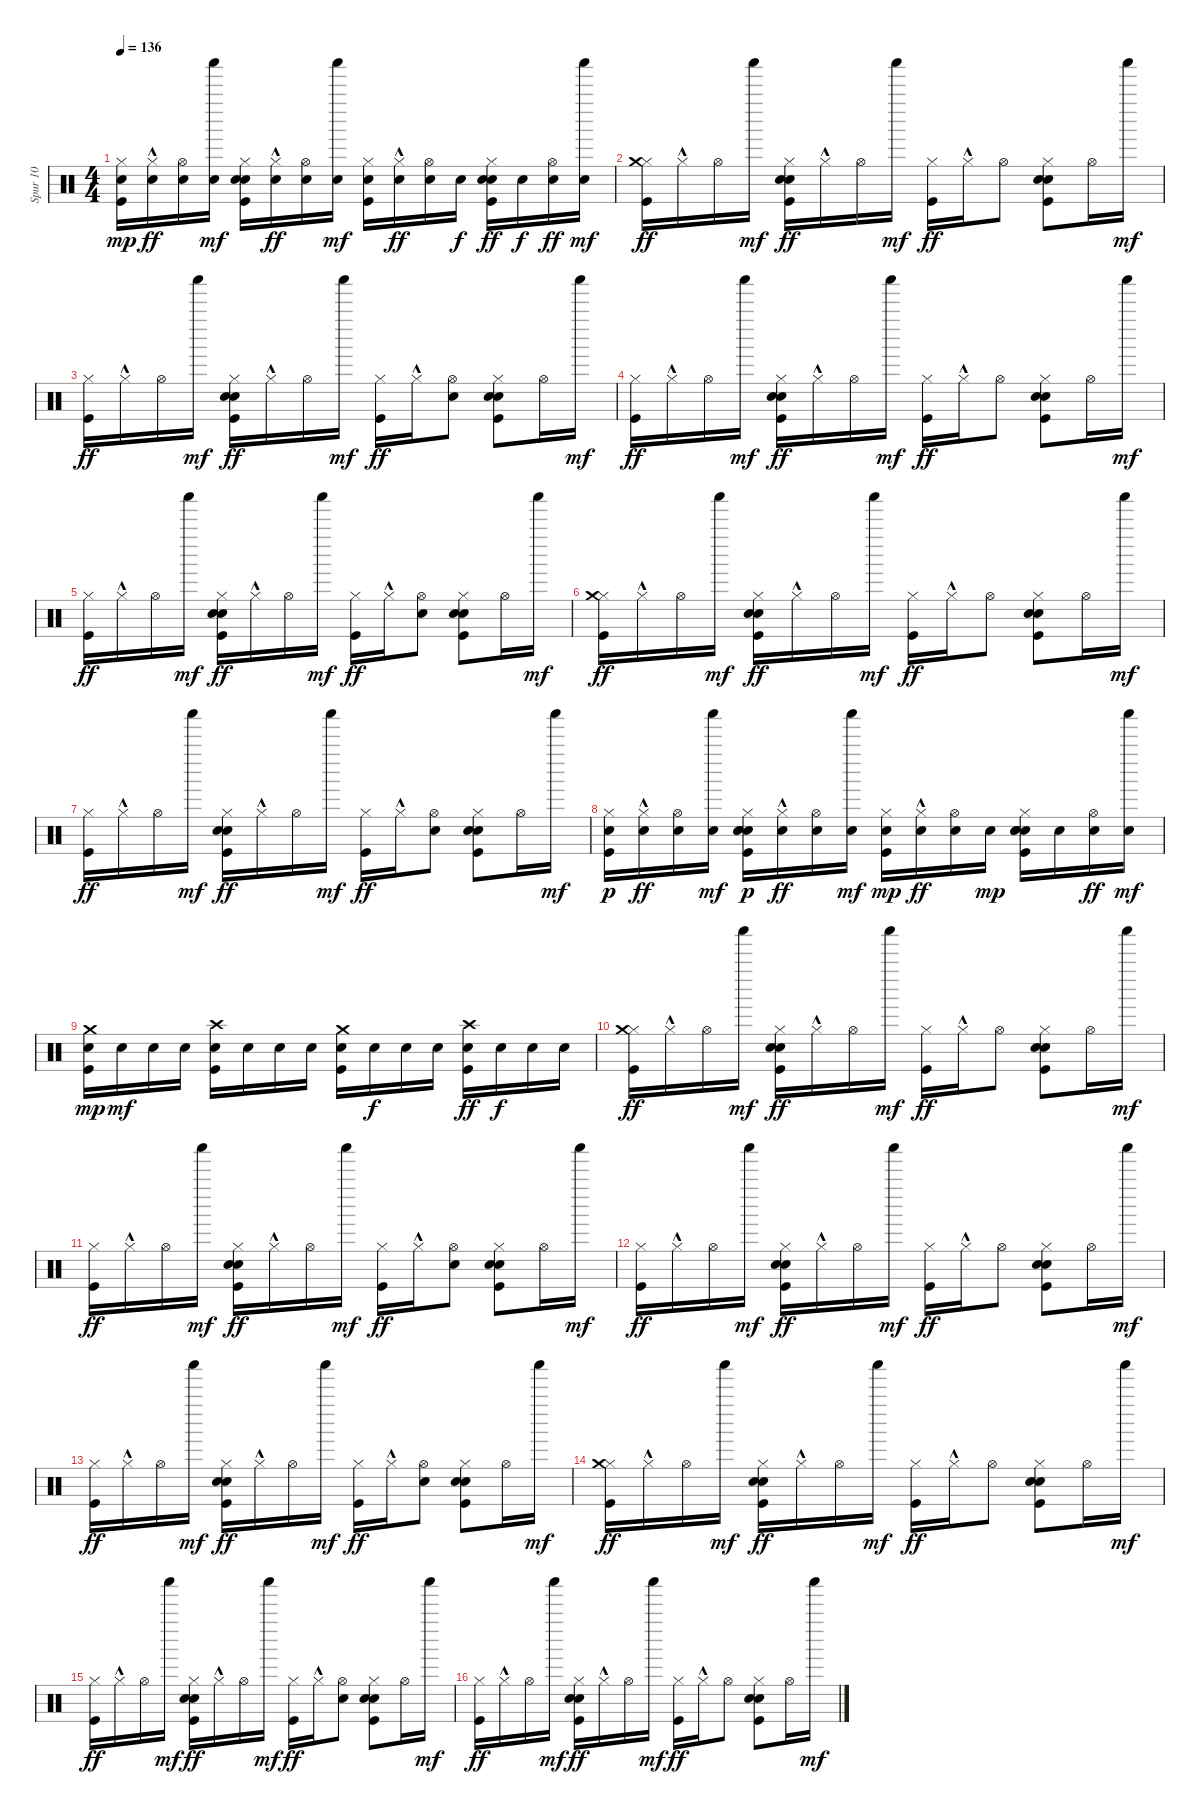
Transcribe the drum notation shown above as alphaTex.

\track ("Spur 10" "Spur 10") {instrument percussion}
\staff {score}
\articulation defaults
\ts (4 4)
\tempo 136
\clef neutral
\ks c
("Kick (hit)" "Snare (hit) 2" "Hi-Hat (closed)").16{dy mp} ("Snare (hit) 2" "Hi-Hat (closed)"{hac}).16{dy ff} ("Snare (hit) 2" "Hi-Hat (open)").16 ("Snare (hit) 2" "Shaker (hit)").16{dy mf} ("Kick (hit)" "Electric Snare (hit)" "Snare (hit) 2" "Hi-Hat (closed)").16 ("Snare (hit) 2" "Hi-Hat (closed)"{hac}).16{dy ff} ("Snare (hit) 2" "Hi-Hat (open)").16 ("Snare (hit) 2" "Shaker (hit)").16{dy mf} ("Kick (hit)" "Snare (hit) 2" "Hi-Hat (closed)").16 ("Snare (hit) 2" "Hi-Hat (closed)"{hac}).16{dy ff} ("Snare (hit) 2" "Hi-Hat (open)").16 "Snare (hit) 2".16{dy f} ("Kick (hit)" "Electric Snare (hit)" "Snare (hit) 2" "Hi-Hat (closed)").16{dy ff} "Snare (hit) 2".16{dy f} ("Snare (hit) 2" "Hi-Hat (open)").16{dy ff} ("Snare (hit) 2" "Shaker (hit)").16{dy mf} |
("Kick (hit)" "Hi-Hat (closed)" "Crash medium (hit)").16{dy ff} "Hi-Hat (closed)"{hac}.16 "Hi-Hat (open)".16 "Shaker (hit)".16{dy mf} ("Kick (hit)" "Electric Snare (hit)" "Hi-Hat (closed)" "Hand Clap (hit)").16{dy ff} "Hi-Hat (closed)"{hac}.16 "Hi-Hat (open)".16 "Shaker (hit)".16{dy mf} ("Kick (hit)" "Hi-Hat (closed)").16{dy ff} "Hi-Hat (closed)"{hac}.16 "Hi-Hat (open)".8 ("Kick (hit)" "Electric Snare (hit)" "Hi-Hat (closed)" "Hand Clap (hit)").8 "Hi-Hat (open)".16 "Shaker (hit)".16{dy mf} |
("Kick (hit)" "Hi-Hat (closed)").16{dy ff} "Hi-Hat (closed)"{hac}.16 "Hi-Hat (open)".16 "Shaker (hit)".16{dy mf} ("Kick (hit)" "Electric Snare (hit)" "Hi-Hat (closed)" "Hand Clap (hit)").16{dy ff} "Hi-Hat (closed)"{hac}.16 "Hi-Hat (open)".16 "Shaker (hit)".16{dy mf} ("Kick (hit)" "Hi-Hat (closed)").16{dy ff} "Hi-Hat (closed)"{hac}.16 ("Hi-Hat (open)" "Hand Clap (hit)").8 ("Kick (hit)" "Electric Snare (hit)" "Hi-Hat (closed)" "Hand Clap (hit)").8 "Hi-Hat (open)".16 "Shaker (hit)".16{dy mf} |
("Kick (hit)" "Hi-Hat (closed)").16{dy ff} "Hi-Hat (closed)"{hac}.16 "Hi-Hat (open)".16 "Shaker (hit)".16{dy mf} ("Kick (hit)" "Electric Snare (hit)" "Hi-Hat (closed)" "Hand Clap (hit)").16{dy ff} "Hi-Hat (closed)"{hac}.16 "Hi-Hat (open)".16 "Shaker (hit)".16{dy mf} ("Kick (hit)" "Hi-Hat (closed)").16{dy ff} "Hi-Hat (closed)"{hac}.16 "Hi-Hat (open)".8 ("Kick (hit)" "Electric Snare (hit)" "Hi-Hat (closed)" "Hand Clap (hit)").8 "Hi-Hat (open)".16 "Shaker (hit)".16{dy mf} |
("Kick (hit)" "Hi-Hat (closed)").16{dy ff} "Hi-Hat (closed)"{hac}.16 "Hi-Hat (open)".16 "Shaker (hit)".16{dy mf} ("Kick (hit)" "Electric Snare (hit)" "Hi-Hat (closed)" "Hand Clap (hit)").16{dy ff} "Hi-Hat (closed)"{hac}.16 "Hi-Hat (open)".16 "Shaker (hit)".16{dy mf} ("Kick (hit)" "Hi-Hat (closed)").16{dy ff} "Hi-Hat (closed)"{hac}.16 ("Hi-Hat (open)" "Hand Clap (hit)").8 ("Kick (hit)" "Electric Snare (hit)" "Hi-Hat (closed)" "Hand Clap (hit)").8 "Hi-Hat (open)".16 "Shaker (hit)".16{dy mf} |
("Kick (hit)" "Hi-Hat (closed)" "Crash medium (hit)").16{dy ff} "Hi-Hat (closed)"{hac}.16 "Hi-Hat (open)".16 "Shaker (hit)".16{dy mf} ("Kick (hit)" "Electric Snare (hit)" "Hi-Hat (closed)" "Hand Clap (hit)").16{dy ff} "Hi-Hat (closed)"{hac}.16 "Hi-Hat (open)".16 "Shaker (hit)".16{dy mf} ("Kick (hit)" "Hi-Hat (closed)").16{dy ff} "Hi-Hat (closed)"{hac}.16 "Hi-Hat (open)".8 ("Kick (hit)" "Electric Snare (hit)" "Hi-Hat (closed)" "Hand Clap (hit)").8 "Hi-Hat (open)".16 "Shaker (hit)".16{dy mf} |
("Kick (hit)" "Hi-Hat (closed)").16{dy ff} "Hi-Hat (closed)"{hac}.16 "Hi-Hat (open)".16 "Shaker (hit)".16{dy mf} ("Kick (hit)" "Electric Snare (hit)" "Hi-Hat (closed)" "Hand Clap (hit)").16{dy ff} "Hi-Hat (closed)"{hac}.16 "Hi-Hat (open)".16 "Shaker (hit)".16{dy mf} ("Kick (hit)" "Hi-Hat (closed)").16{dy ff} "Hi-Hat (closed)"{hac}.16 ("Hi-Hat (open)" "Hand Clap (hit)").8 ("Kick (hit)" "Electric Snare (hit)" "Hi-Hat (closed)" "Hand Clap (hit)").8 "Hi-Hat (open)".16 "Shaker (hit)".16{dy mf} |
("Kick (hit)" "Snare (hit) 2" "Hi-Hat (closed)").16{dy p} ("Snare (hit) 2" "Hi-Hat (closed)"{hac}).16{dy ff} ("Snare (hit) 2" "Hi-Hat (open)").16 ("Snare (hit) 2" "Shaker (hit)").16{dy mf} ("Kick (hit)" "Electric Snare (hit)" "Snare (hit) 2" "Hi-Hat (closed)" "Hand Clap (hit)").16{dy p} ("Snare (hit) 2" "Hi-Hat (closed)"{hac}).16{dy ff} ("Snare (hit) 2" "Hi-Hat (open)").16 ("Snare (hit) 2" "Shaker (hit)").16{dy mf} ("Kick (hit)" "Snare (hit) 2" "Hi-Hat (closed)").16{dy mp} ("Snare (hit) 2" "Hi-Hat (closed)"{hac}).16{dy ff} ("Snare (hit) 2" "Hi-Hat (open)").16 "Snare (hit) 2".16{dy mp} ("Kick (hit)" "Electric Snare (hit)" "Snare (hit) 2" "Hi-Hat (closed)" "Hand Clap (hit)").16 "Snare (hit) 2".16 ("Snare (hit) 2" "Hi-Hat (open)").16{dy ff} ("Snare (hit) 2" "Shaker (hit)").16{dy mf} |
("Kick (hit)" "Snare (hit) 2" "Crash medium (hit)").16{dy mp} "Snare (hit) 2".16{dy mf} "Snare (hit) 2".16 "Snare (hit) 2".16 ("Kick (hit)" "Snare (hit) 2" "Crash high (hit)").16 "Snare (hit) 2".16 "Snare (hit) 2".16 "Snare (hit) 2".16 ("Kick (hit)" "Snare (hit) 2" "Crash medium (hit)").16 "Snare (hit) 2".16{dy f} "Snare (hit) 2".16 "Snare (hit) 2".16 ("Kick (hit)" "Snare (hit) 2" "Crash high (hit)").16{dy ff} "Snare (hit) 2".16{dy f} "Snare (hit) 2".16 "Snare (hit) 2".16 |
("Kick (hit)" "Hi-Hat (closed)" "Crash medium (hit)").16{dy ff} "Hi-Hat (closed)"{hac}.16 "Hi-Hat (open)".16 "Shaker (hit)".16{dy mf} ("Kick (hit)" "Electric Snare (hit)" "Hi-Hat (closed)" "Hand Clap (hit)").16{dy ff} "Hi-Hat (closed)"{hac}.16 "Hi-Hat (open)".16 "Shaker (hit)".16{dy mf} ("Kick (hit)" "Hi-Hat (closed)").16{dy ff} "Hi-Hat (closed)"{hac}.16 "Hi-Hat (open)".8 ("Kick (hit)" "Electric Snare (hit)" "Hi-Hat (closed)" "Hand Clap (hit)").8 "Hi-Hat (open)".16 "Shaker (hit)".16{dy mf} |
("Kick (hit)" "Hi-Hat (closed)").16{dy ff} "Hi-Hat (closed)"{hac}.16 "Hi-Hat (open)".16 "Shaker (hit)".16{dy mf} ("Kick (hit)" "Electric Snare (hit)" "Hi-Hat (closed)" "Hand Clap (hit)").16{dy ff} "Hi-Hat (closed)"{hac}.16 "Hi-Hat (open)".16 "Shaker (hit)".16{dy mf} ("Kick (hit)" "Hi-Hat (closed)").16{dy ff} "Hi-Hat (closed)"{hac}.16 ("Hi-Hat (open)" "Hand Clap (hit)").8 ("Kick (hit)" "Electric Snare (hit)" "Hi-Hat (closed)" "Hand Clap (hit)").8 "Hi-Hat (open)".16 "Shaker (hit)".16{dy mf} |
("Kick (hit)" "Hi-Hat (closed)").16{dy ff} "Hi-Hat (closed)"{hac}.16 "Hi-Hat (open)".16 "Shaker (hit)".16{dy mf} ("Kick (hit)" "Electric Snare (hit)" "Hi-Hat (closed)" "Hand Clap (hit)").16{dy ff} "Hi-Hat (closed)"{hac}.16 "Hi-Hat (open)".16 "Shaker (hit)".16{dy mf} ("Kick (hit)" "Hi-Hat (closed)").16{dy ff} "Hi-Hat (closed)"{hac}.16 "Hi-Hat (open)".8 ("Kick (hit)" "Electric Snare (hit)" "Hi-Hat (closed)" "Hand Clap (hit)").8 "Hi-Hat (open)".16 "Shaker (hit)".16{dy mf} |
("Kick (hit)" "Hi-Hat (closed)").16{dy ff} "Hi-Hat (closed)"{hac}.16 "Hi-Hat (open)".16 "Shaker (hit)".16{dy mf} ("Kick (hit)" "Electric Snare (hit)" "Hi-Hat (closed)" "Hand Clap (hit)").16{dy ff} "Hi-Hat (closed)"{hac}.16 "Hi-Hat (open)".16 "Shaker (hit)".16{dy mf} ("Kick (hit)" "Hi-Hat (closed)").16{dy ff} "Hi-Hat (closed)"{hac}.16 ("Hi-Hat (open)" "Hand Clap (hit)").8 ("Kick (hit)" "Electric Snare (hit)" "Hi-Hat (closed)" "Hand Clap (hit)").8 "Hi-Hat (open)".16 "Shaker (hit)".16{dy mf} |
("Kick (hit)" "Hi-Hat (closed)" "Crash medium (hit)").16{dy ff} "Hi-Hat (closed)"{hac}.16 "Hi-Hat (open)".16 "Shaker (hit)".16{dy mf} ("Kick (hit)" "Electric Snare (hit)" "Hi-Hat (closed)" "Hand Clap (hit)").16{dy ff} "Hi-Hat (closed)"{hac}.16 "Hi-Hat (open)".16 "Shaker (hit)".16{dy mf} ("Kick (hit)" "Hi-Hat (closed)").16{dy ff} "Hi-Hat (closed)"{hac}.16 "Hi-Hat (open)".8 ("Kick (hit)" "Electric Snare (hit)" "Hi-Hat (closed)" "Hand Clap (hit)").8 "Hi-Hat (open)".16 "Shaker (hit)".16{dy mf} |
("Kick (hit)" "Hi-Hat (closed)").16{dy ff} "Hi-Hat (closed)"{hac}.16 "Hi-Hat (open)".16 "Shaker (hit)".16{dy mf} ("Kick (hit)" "Electric Snare (hit)" "Hi-Hat (closed)" "Hand Clap (hit)").16{dy ff} "Hi-Hat (closed)"{hac}.16 "Hi-Hat (open)".16 "Shaker (hit)".16{dy mf} ("Kick (hit)" "Hi-Hat (closed)").16{dy ff} "Hi-Hat (closed)"{hac}.16 ("Hi-Hat (open)" "Hand Clap (hit)").8 ("Kick (hit)" "Electric Snare (hit)" "Hi-Hat (closed)" "Hand Clap (hit)").8 "Hi-Hat (open)".16 "Shaker (hit)".16{dy mf} |
("Kick (hit)" "Hi-Hat (closed)").16{dy ff} "Hi-Hat (closed)"{hac}.16 "Hi-Hat (open)".16 "Shaker (hit)".16{dy mf} ("Kick (hit)" "Electric Snare (hit)" "Hi-Hat (closed)" "Hand Clap (hit)").16{dy ff} "Hi-Hat (closed)"{hac}.16 "Hi-Hat (open)".16 "Shaker (hit)".16{dy mf} ("Kick (hit)" "Hi-Hat (closed)").16{dy ff} "Hi-Hat (closed)"{hac}.16 "Hi-Hat (open)".8 ("Kick (hit)" "Electric Snare (hit)" "Hi-Hat (closed)" "Hand Clap (hit)").8 "Hi-Hat (open)".16 "Shaker (hit)".16{dy mf}
